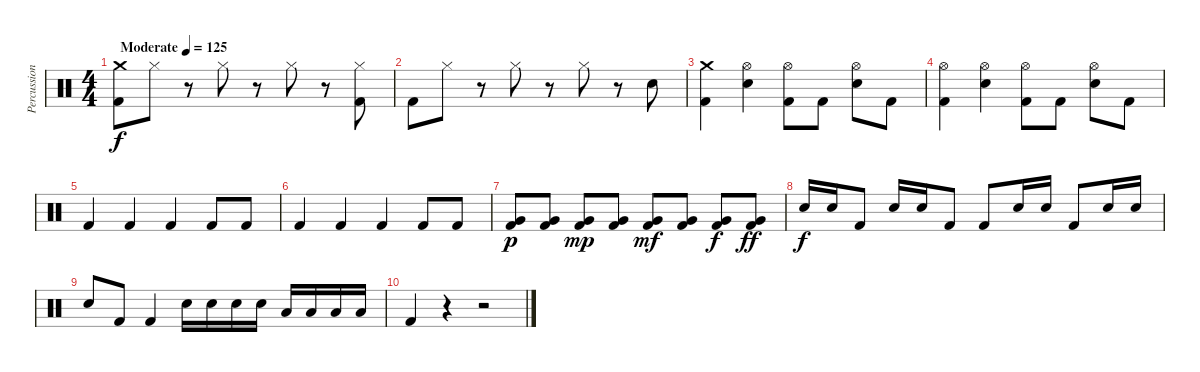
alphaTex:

\track ("Percussion" "Percussion") {instrument percussion}
\staff {score}
\articulation defaults
\ts (4 4)
\tempo (125 "Moderate")
\clef neutral
\ks c
("Crash medium (hit)" "Kick (hit) 2").8{dy f} "Hi-Hat (closed)".8 r.8 "Hi-Hat (closed)".8 r.8 "Hi-Hat (closed)".8 r.8 ("Hi-Hat (closed)" "Kick (hit) 2").8 |
"Kick (hit) 2".8 "Hi-Hat (closed)".8 r.8 "Hi-Hat (closed)".8 r.8 "Hi-Hat (closed)".8 r.8 "Electric Snare (hit)".8 |
("Crash medium (hit)" "Kick (hit) 2").4 ("Hi-Hat (open)" "Electric Snare (hit)").4 ("Hi-Hat (open)" "Kick (hit) 2").8 "Kick (hit) 2".8 ("Hi-Hat (open)" "Electric Snare (hit)").8 "Kick (hit) 2".8 |
("Hi-Hat (open)" "Kick (hit) 2").4 ("Hi-Hat (open)" "Electric Snare (hit)").4 ("Hi-Hat (open)" "Kick (hit) 2").8 "Kick (hit) 2".8 ("Hi-Hat (open)" "Electric Snare (hit)").8 "Kick (hit) 2".8 |
"Kick (hit) 2".4 "Kick (hit) 2".4 "Kick (hit) 2".4 "Kick (hit) 2".8 "Kick (hit) 2".8 |
"Kick (hit) 2".4 "Kick (hit) 2".4 "Kick (hit) 2".4 "Kick (hit) 2".8 "Kick (hit) 2".8 |
("Very Low Tom (hit)" "Kick (hit) 2").8{dy p} ("Very Low Tom (hit)" "Kick (hit) 2").8 ("Very Low Tom (hit)" "Kick (hit) 2").8{dy mp} ("Very Low Tom (hit)" "Kick (hit) 2").8 ("Very Low Tom (hit)" "Kick (hit) 2").8{dy mf} ("Very Low Tom (hit)" "Kick (hit) 2").8 ("Very Low Tom (hit)" "Kick (hit) 2").8{dy f} ("Very Low Tom (hit)" "Kick (hit) 2").8{dy ff} |
"Electric Snare (hit)".16{dy f} "Electric Snare (hit)".16 "Kick (hit) 2".8 "Electric Snare (hit)".16 "Electric Snare (hit)".16 "Kick (hit) 2".8 "Kick (hit) 2".8 "Electric Snare (hit)".16 "Electric Snare (hit)".16 "Kick (hit) 2".8 "Electric Snare (hit)".16 "Electric Snare (hit)".16 |
"Electric Snare (hit)".8 "Kick (hit) 2".8 "Kick (hit) 2".4 "Electric Snare (hit)".16 "Electric Snare (hit)".16 "Electric Snare (hit)".16 "Electric Snare (hit)".16 "Low Tom (hit)".16 "Low Tom (hit)".16 "Low Tom (hit)".16 "Low Tom (hit)".16 |
"Kick (hit) 2".4 r.4 r.2
